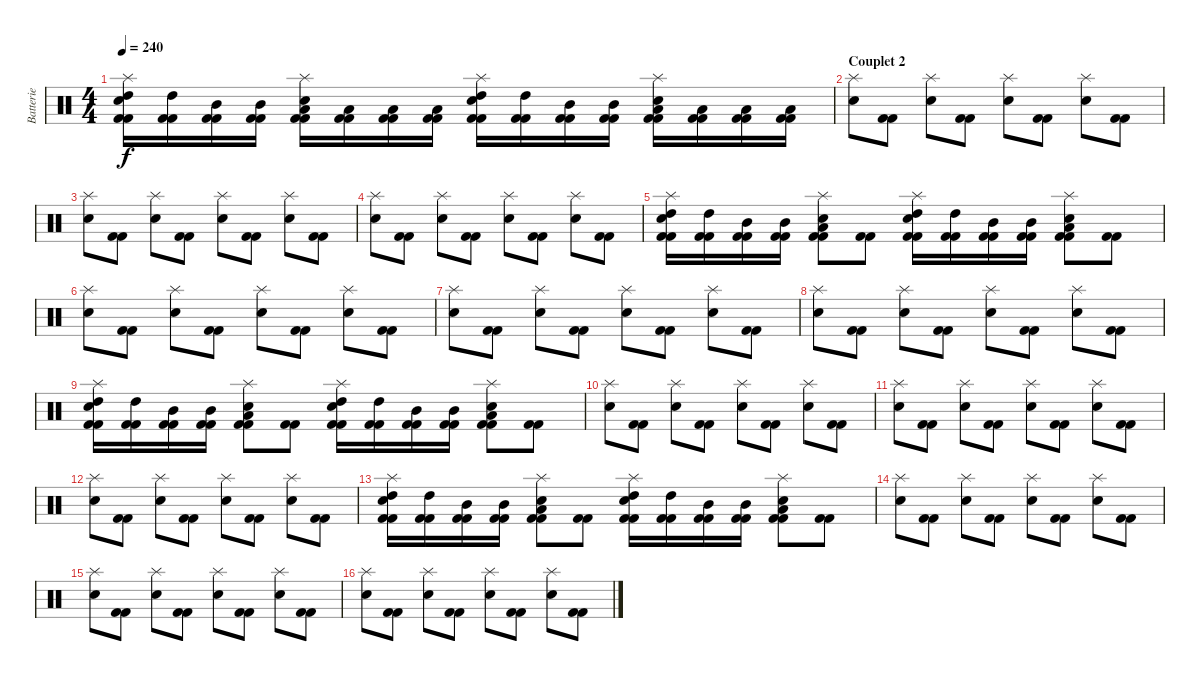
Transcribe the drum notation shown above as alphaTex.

\track ("Batterie" "Batterie") {instrument percussion}
\staff {score}
\articulation defaults
\ts (4 4)
\tempo 240
\clef neutral
\ks c
("Splash (hit)" "Snare (hit) 2" "High Tom (hit)" "Kick (hit) 2" "Kick (hit) 2").16{dy f} ("High Tom (hit)" "Kick (hit) 2" "Kick (hit) 2").16 ("Mid Tom (hit)" "Kick (hit) 2" "Kick (hit) 2").16 ("Mid Tom (hit)" "Kick (hit) 2" "Kick (hit) 2").16 ("Splash (hit)" "Snare (hit) 2" "Low Tom (hit)" "Kick (hit) 2" "Kick (hit) 2").16 ("Low Tom (hit)" "Kick (hit) 2" "Kick (hit) 2").16 ("Low Tom (hit)" "Kick (hit) 2" "Kick (hit) 2").16 ("Low Tom (hit)" "Kick (hit) 2" "Kick (hit) 2").16 ("Splash (hit)" "Snare (hit) 2" "High Tom (hit)" "Kick (hit) 2" "Kick (hit) 2").16 ("High Tom (hit)" "Kick (hit) 2" "Kick (hit) 2").16 ("Mid Tom (hit)" "Kick (hit) 2" "Kick (hit) 2").16 ("Mid Tom (hit)" "Kick (hit) 2" "Kick (hit) 2").16 ("Splash (hit)" "Snare (hit) 2" "Low Tom (hit)" "Kick (hit) 2" "Kick (hit) 2").16 ("Low Tom (hit)" "Kick (hit) 2" "Kick (hit) 2").16 ("Low Tom (hit)" "Kick (hit) 2" "Kick (hit) 2").16 ("Low Tom (hit)" "Kick (hit) 2" "Kick (hit) 2").16 |
\section ("" "Couplet 2")
("Splash (hit)" "Snare (hit) 2").8 ("Kick (hit) 2" "Kick (hit) 2").8 ("Splash (hit)" "Snare (hit) 2").8 ("Kick (hit) 2" "Kick (hit) 2").8 ("Splash (hit)" "Snare (hit) 2").8 ("Kick (hit) 2" "Kick (hit) 2").8 ("Splash (hit)" "Snare (hit) 2").8 ("Kick (hit) 2" "Kick (hit) 2").8 |
("Splash (hit)" "Snare (hit) 2").8 ("Kick (hit) 2" "Kick (hit) 2").8 ("Splash (hit)" "Snare (hit) 2").8 ("Kick (hit) 2" "Kick (hit) 2").8 ("Splash (hit)" "Snare (hit) 2").8 ("Kick (hit) 2" "Kick (hit) 2").8 ("Splash (hit)" "Snare (hit) 2").8 ("Kick (hit) 2" "Kick (hit) 2").8 |
("Splash (hit)" "Snare (hit) 2").8 ("Kick (hit) 2" "Kick (hit) 2").8 ("Splash (hit)" "Snare (hit) 2").8 ("Kick (hit) 2" "Kick (hit) 2").8 ("Splash (hit)" "Snare (hit) 2").8 ("Kick (hit) 2" "Kick (hit) 2").8 ("Splash (hit)" "Snare (hit) 2").8 ("Kick (hit) 2" "Kick (hit) 2").8 |
("Splash (hit)" "Snare (hit) 2" "High Tom (hit)" "Kick (hit) 2" "Kick (hit) 2").16 ("High Tom (hit)" "Kick (hit) 2" "Kick (hit) 2").16 ("Mid Tom (hit)" "Kick (hit) 2" "Kick (hit) 2").16 ("Mid Tom (hit)" "Kick (hit) 2" "Kick (hit) 2").16 ("Splash (hit)" "Snare (hit) 2" "Low Tom (hit)" "Kick (hit) 2" "Kick (hit) 2").8 ("Kick (hit) 2" "Kick (hit) 2").8 ("Splash (hit)" "Snare (hit) 2" "High Tom (hit)" "Kick (hit) 2" "Kick (hit) 2").16 ("High Tom (hit)" "Kick (hit) 2" "Kick (hit) 2").16 ("Mid Tom (hit)" "Kick (hit) 2" "Kick (hit) 2").16 ("Mid Tom (hit)" "Kick (hit) 2" "Kick (hit) 2").16 ("Splash (hit)" "Snare (hit) 2" "Low Tom (hit)" "Kick (hit) 2" "Kick (hit) 2").8 ("Kick (hit) 2" "Kick (hit) 2").8 |
("Splash (hit)" "Snare (hit) 2").8 ("Kick (hit) 2" "Kick (hit) 2").8 ("Splash (hit)" "Snare (hit) 2").8 ("Kick (hit) 2" "Kick (hit) 2").8 ("Splash (hit)" "Snare (hit) 2").8 ("Kick (hit) 2" "Kick (hit) 2").8 ("Splash (hit)" "Snare (hit) 2").8 ("Kick (hit) 2" "Kick (hit) 2").8 |
("Splash (hit)" "Snare (hit) 2").8 ("Kick (hit) 2" "Kick (hit) 2").8 ("Splash (hit)" "Snare (hit) 2").8 ("Kick (hit) 2" "Kick (hit) 2").8 ("Splash (hit)" "Snare (hit) 2").8 ("Kick (hit) 2" "Kick (hit) 2").8 ("Splash (hit)" "Snare (hit) 2").8 ("Kick (hit) 2" "Kick (hit) 2").8 |
("Splash (hit)" "Snare (hit) 2").8 ("Kick (hit) 2" "Kick (hit) 2").8 ("Splash (hit)" "Snare (hit) 2").8 ("Kick (hit) 2" "Kick (hit) 2").8 ("Splash (hit)" "Snare (hit) 2").8 ("Kick (hit) 2" "Kick (hit) 2").8 ("Splash (hit)" "Snare (hit) 2").8 ("Kick (hit) 2" "Kick (hit) 2").8 |
("Splash (hit)" "Snare (hit) 2" "High Tom (hit)" "Kick (hit) 2" "Kick (hit) 2").16 ("High Tom (hit)" "Kick (hit) 2" "Kick (hit) 2").16 ("Mid Tom (hit)" "Kick (hit) 2" "Kick (hit) 2").16 ("Mid Tom (hit)" "Kick (hit) 2" "Kick (hit) 2").16 ("Splash (hit)" "Snare (hit) 2" "Low Tom (hit)" "Kick (hit) 2" "Kick (hit) 2").8 ("Kick (hit) 2" "Kick (hit) 2").8 ("Splash (hit)" "Snare (hit) 2" "High Tom (hit)" "Kick (hit) 2" "Kick (hit) 2").16 ("High Tom (hit)" "Kick (hit) 2" "Kick (hit) 2").16 ("Mid Tom (hit)" "Kick (hit) 2" "Kick (hit) 2").16 ("Mid Tom (hit)" "Kick (hit) 2" "Kick (hit) 2").16 ("Splash (hit)" "Snare (hit) 2" "Low Tom (hit)" "Kick (hit) 2" "Kick (hit) 2").8 ("Kick (hit) 2" "Kick (hit) 2").8 |
("Splash (hit)" "Snare (hit) 2").8 ("Kick (hit) 2" "Kick (hit) 2").8 ("Splash (hit)" "Snare (hit) 2").8 ("Kick (hit) 2" "Kick (hit) 2").8 ("Splash (hit)" "Snare (hit) 2").8 ("Kick (hit) 2" "Kick (hit) 2").8 ("Splash (hit)" "Snare (hit) 2").8 ("Kick (hit) 2" "Kick (hit) 2").8 |
("Splash (hit)" "Snare (hit) 2").8 ("Kick (hit) 2" "Kick (hit) 2").8 ("Splash (hit)" "Snare (hit) 2").8 ("Kick (hit) 2" "Kick (hit) 2").8 ("Splash (hit)" "Snare (hit) 2").8 ("Kick (hit) 2" "Kick (hit) 2").8 ("Splash (hit)" "Snare (hit) 2").8 ("Kick (hit) 2" "Kick (hit) 2").8 |
("Splash (hit)" "Snare (hit) 2").8 ("Kick (hit) 2" "Kick (hit) 2").8 ("Splash (hit)" "Snare (hit) 2").8 ("Kick (hit) 2" "Kick (hit) 2").8 ("Splash (hit)" "Snare (hit) 2").8 ("Kick (hit) 2" "Kick (hit) 2").8 ("Splash (hit)" "Snare (hit) 2").8 ("Kick (hit) 2" "Kick (hit) 2").8 |
("Splash (hit)" "Snare (hit) 2" "High Tom (hit)" "Kick (hit) 2" "Kick (hit) 2").16 ("High Tom (hit)" "Kick (hit) 2" "Kick (hit) 2").16 ("Mid Tom (hit)" "Kick (hit) 2" "Kick (hit) 2").16 ("Mid Tom (hit)" "Kick (hit) 2" "Kick (hit) 2").16 ("Splash (hit)" "Snare (hit) 2" "Low Tom (hit)" "Kick (hit) 2" "Kick (hit) 2").8 ("Kick (hit) 2" "Kick (hit) 2").8 ("Splash (hit)" "Snare (hit) 2" "High Tom (hit)" "Kick (hit) 2" "Kick (hit) 2").16 ("High Tom (hit)" "Kick (hit) 2" "Kick (hit) 2").16 ("Mid Tom (hit)" "Kick (hit) 2" "Kick (hit) 2").16 ("Mid Tom (hit)" "Kick (hit) 2" "Kick (hit) 2").16 ("Splash (hit)" "Snare (hit) 2" "Low Tom (hit)" "Kick (hit) 2" "Kick (hit) 2").8 ("Kick (hit) 2" "Kick (hit) 2").8 |
("Splash (hit)" "Snare (hit) 2").8 ("Kick (hit) 2" "Kick (hit) 2").8 ("Splash (hit)" "Snare (hit) 2").8 ("Kick (hit) 2" "Kick (hit) 2").8 ("Splash (hit)" "Snare (hit) 2").8 ("Kick (hit) 2" "Kick (hit) 2").8 ("Splash (hit)" "Snare (hit) 2").8 ("Kick (hit) 2" "Kick (hit) 2").8 |
("Splash (hit)" "Snare (hit) 2").8 ("Kick (hit) 2" "Kick (hit) 2").8 ("Splash (hit)" "Snare (hit) 2").8 ("Kick (hit) 2" "Kick (hit) 2").8 ("Splash (hit)" "Snare (hit) 2").8 ("Kick (hit) 2" "Kick (hit) 2").8 ("Splash (hit)" "Snare (hit) 2").8 ("Kick (hit) 2" "Kick (hit) 2").8 |
("Splash (hit)" "Snare (hit) 2").8 ("Kick (hit) 2" "Kick (hit) 2").8 ("Splash (hit)" "Snare (hit) 2").8 ("Kick (hit) 2" "Kick (hit) 2").8 ("Splash (hit)" "Snare (hit) 2").8 ("Kick (hit) 2" "Kick (hit) 2").8 ("Splash (hit)" "Snare (hit) 2").8 ("Kick (hit) 2" "Kick (hit) 2").8
